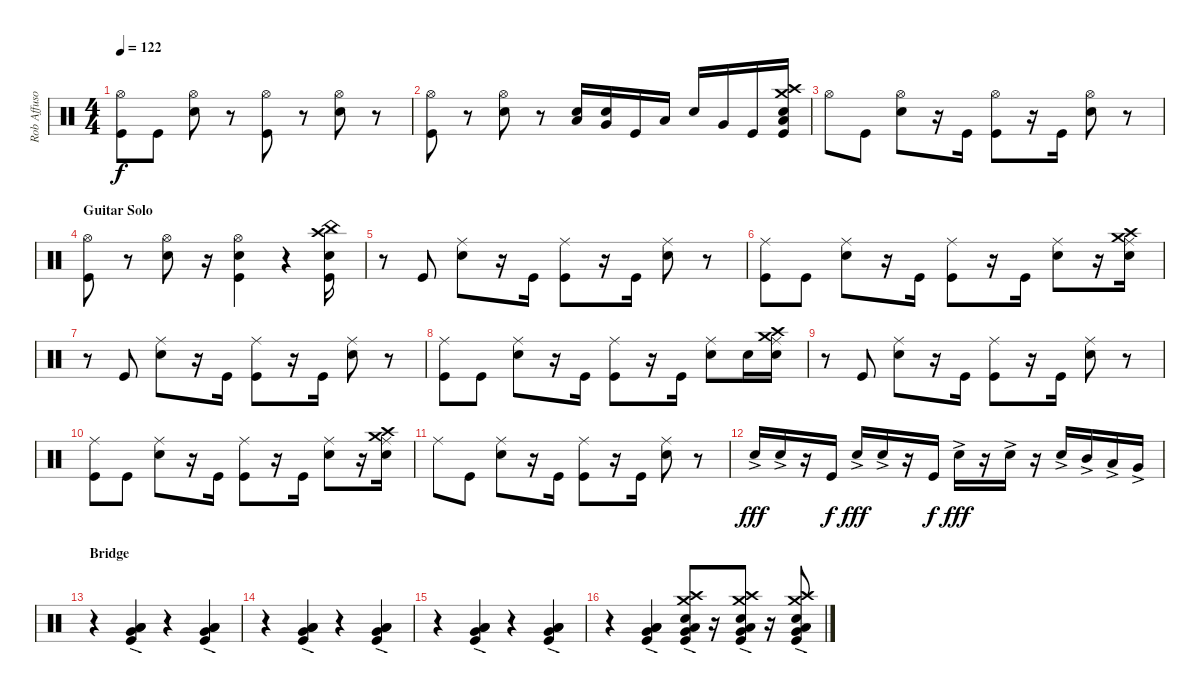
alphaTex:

\track ("Rob Affuso - Drums" "Rob Affuso") {instrument percussion}
\staff {score}
\articulation defaults
\ts (4 4)
\tempo 122
\clef neutral
\ks c
("Hi-Hat (open)" "Kick (hit)").8{dy f} "Kick (hit)".8 ("Hi-Hat (open)" "Snare (hit) 2").8 r.8 ("Hi-Hat (open)" "Kick (hit)").8 r.8 ("Hi-Hat (open)" "Snare (hit) 2").8 r.8 |
("Hi-Hat (open)" "Kick (hit)").8 r.8 ("Hi-Hat (open)" "Snare (hit) 2").8 r.8 ("Low Tom (hit)" "Snare (hit) 2").16 ("Very Low Tom (hit)" "Snare (hit) 2").16 "Kick (hit)".16 "Low Tom (hit)".16 "Snare (hit) 2".16 "Very Low Tom (hit)".16 "Kick (hit)".16 ("Crash medium (hit)" "Crash high (hit)" "Snare (hit) 2" "Low Floor Tom (hit)" "Kick (hit)").16 |
"Hi-Hat (open)".8 "Kick (hit)".8 ("Hi-Hat (open)" "Snare (hit) 2").8 r.16 "Kick (hit)".16 ("Hi-Hat (open)" "Kick (hit)").8 r.16 "Kick (hit)".16 ("Hi-Hat (open)" "Snare (hit) 2").8 r.8 |
\section ("" "Guitar Solo")
("Hi-Hat (open)" "Kick (hit)").8 r.8 ("Hi-Hat (open)" "Snare (hit) 2").8 r.16 ("Hi-Hat (open)" "Snare (hit) 2" "Kick (hit)").4 r.4 ("Crash high (hit)" "China (hit)" "Snare (hit) 2" "Kick (hit)").16 |
r.8 "Kick (hit)".8 ("Ride (middle)" "Snare (hit) 2").8 r.16 "Kick (hit)".16 ("Ride (middle)" "Kick (hit)").8 r.16 "Kick (hit)".16 ("Ride (middle)" "Snare (hit) 2").8 r.8 |
("Ride (middle)" "Kick (hit)").8 "Kick (hit)".8 ("Ride (middle)" "Snare (hit) 2").8 r.16 "Kick (hit)".16 ("Ride (middle)" "Kick (hit)").8 r.16 "Kick (hit)".16 ("Ride (middle)" "Snare (hit) 2").8 r.16 ("Ride (middle)" "Crash medium (hit)" "Crash high (hit)" "Snare (hit) 2").16 |
r.8 "Kick (hit)".8 ("Ride (middle)" "Snare (hit) 2").8 r.16 "Kick (hit)".16 ("Ride (middle)" "Kick (hit)").8 r.16 "Kick (hit)".16 ("Ride (middle)" "Snare (hit) 2").8 r.8 |
("Ride (middle)" "Kick (hit)").8 "Kick (hit)".8 ("Ride (middle)" "Snare (hit) 2").8 r.16 "Kick (hit)".16 ("Ride (middle)" "Kick (hit)").8 r.16 "Kick (hit)".16 ("Ride (middle)" "Snare (hit) 2").8 "Snare (hit) 2".16 ("Ride (middle)" "Crash medium (hit)" "Crash high (hit)" "Snare (hit) 2").16 |
r.8 "Kick (hit)".8 ("Ride (middle)" "Snare (hit) 2").8 r.16 "Kick (hit)".16 ("Ride (middle)" "Kick (hit)").8 r.16 "Kick (hit)".16 ("Ride (middle)" "Snare (hit) 2").8 r.8 |
("Ride (middle)" "Kick (hit)").8 "Kick (hit)".8 ("Ride (middle)" "Snare (hit) 2").8 r.16 "Kick (hit)".16 ("Ride (middle)" "Kick (hit)").8 r.16 "Kick (hit)".16 ("Ride (middle)" "Snare (hit) 2").8 r.16 ("Ride (middle)" "Crash medium (hit)" "Crash high (hit)" "Snare (hit) 2").16 |
"Ride (middle)".8 "Kick (hit)".8 ("Ride (middle)" "Snare (hit) 2").8 r.16 "Kick (hit)".16 ("Ride (middle)" "Kick (hit)").8 r.16 "Kick (hit)".16 ("Ride (middle)" "Snare (hit) 2").8 r.8 |
"Snare (hit) 2"{ac}.16{dy fff} "Snare (hit) 2"{ac}.16 r.16 "Kick (hit)".16{dy f} "Snare (hit) 2"{ac}.16{dy fff} "Snare (hit) 2"{ac}.16 r.16 "Kick (hit)".16{dy f} "Snare (hit) 2"{ac}.16{dy fff} r.16 "Snare (hit) 2"{ac}.16 r.16 "Snare (hit) 2"{ac}.16 "Mid Tom (hit)"{ac}.16 "Low Tom (hit)"{ac}.16 "Very Low Tom (hit)"{ac}.16 |
\section ("" "Bridge")
r.4 ("Very Low Tom (hit)"{ac} "Low Tom (hit)"{ac} "Low Floor Tom (hit)"{ac} "Kick (hit)"{ac}).4 r.4 ("Very Low Tom (hit)"{ac} "Low Tom (hit)"{ac} "Low Floor Tom (hit)"{ac} "Kick (hit)"{ac}).4 |
r.4 ("Very Low Tom (hit)"{ac} "Low Tom (hit)"{ac} "Low Floor Tom (hit)"{ac} "Kick (hit)"{ac}).4 r.4 ("Very Low Tom (hit)"{ac} "Low Tom (hit)"{ac} "Low Floor Tom (hit)"{ac} "Kick (hit)"{ac}).4 |
r.4 ("Very Low Tom (hit)"{ac} "Low Tom (hit)"{ac} "Low Floor Tom (hit)"{ac} "Kick (hit)"{ac}).4 r.4 ("Very Low Tom (hit)"{ac} "Low Tom (hit)"{ac} "Low Floor Tom (hit)"{ac} "Kick (hit)"{ac}).4 |
r.4 ("Very Low Tom (hit)"{ac} "Low Tom (hit)"{ac} "Low Floor Tom (hit)"{ac} "Kick (hit)"{ac}).4 ("Crash high (hit)"{ac} "Crash medium (hit)"{ac} "Very Low Tom (hit)"{ac} "Snare (hit) 2"{ac} "Low Floor Tom (hit)"{ac} "Kick (hit)"{ac}).8 r.16 ("Crash high (hit)"{ac} "Crash medium (hit)"{ac} "Very Low Tom (hit)"{ac} "Snare (hit) 2"{ac} "Low Floor Tom (hit)"{ac} "Kick (hit)"{ac}).8 r.16 ("Crash high (hit)"{ac} "Crash medium (hit)"{ac} "Very Low Tom (hit)"{ac} "Snare (hit) 2"{ac} "Low Floor Tom (hit)"{ac} "Kick (hit)"{ac}).8
